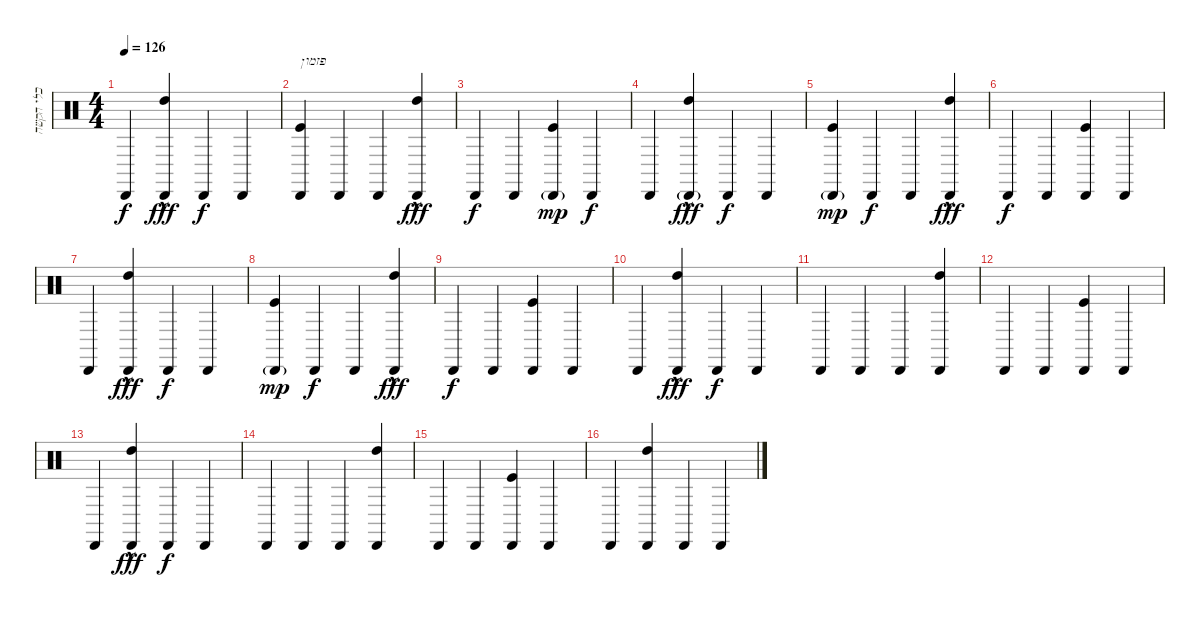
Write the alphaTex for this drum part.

\track ("כלי הקשה" "כלי הקשה") {instrument percussion}
\staff {score}
\articulation defaults
\ts (4 4)
\tempo 126
\clef neutral
\ks c "Cabasa (hit)".4{dy f}
("Cabasa (hit)" "High Tom (hit)"{hac}).4{dy fff} "Cabasa (hit)".4{dy f} "Cabasa (hit)".4 |
("Cabasa (hit)" "Kick (hit)").4{txt "פזמון"} "Cabasa (hit)".4 "Cabasa (hit)".4 ("High Tom (hit)"{hac} "Cabasa (hit)").4{dy fff} |
"Cabasa (hit)".4{dy f} "Cabasa (hit)".4 ("Cabasa (hit)"{g} "Kick (hit)").4{dy mp} "Cabasa (hit)".4{dy f} |
"Cabasa (hit)".4 ("Cabasa (hit)"{g} "High Tom (hit)"{hac}).4{dy fff} "Cabasa (hit)".4{dy f} "Cabasa (hit)".4 |
("Cabasa (hit)"{g} "Kick (hit)").4{dy mp} "Cabasa (hit)".4{dy f} "Cabasa (hit)".4 ("High Tom (hit)"{hac} "Cabasa (hit)").4{dy fff} |
"Cabasa (hit)".4{dy f} "Cabasa (hit)".4 ("Cabasa (hit)" "Kick (hit)").4 "Cabasa (hit)".4 |
"Cabasa (hit)".4 ("Cabasa (hit)" "High Tom (hit)"{hac}).4{dy fff} "Cabasa (hit)".4{dy f} "Cabasa (hit)".4 |
("Cabasa (hit)"{g} "Kick (hit)").4{dy mp} "Cabasa (hit)".4{dy f} "Cabasa (hit)".4 ("High Tom (hit)"{hac} "Cabasa (hit)").4{dy fff} |
"Cabasa (hit)".4{dy f} "Cabasa (hit)".4 ("Cabasa (hit)" "Kick (hit)").4 "Cabasa (hit)".4 |
"Cabasa (hit)".4 ("Cabasa (hit)" "High Tom (hit)"{hac}).4{dy fff} "Cabasa (hit)".4{dy f} "Cabasa (hit)".4 |
"Cabasa (hit)".4 "Cabasa (hit)".4 "Cabasa (hit)".4 ("Cabasa (hit)" "High Tom (hit)").4 |
"Cabasa (hit)".4 "Cabasa (hit)".4 ("Cabasa (hit)" "Kick (hit)").4 "Cabasa (hit)".4 |
"Cabasa (hit)".4 ("Cabasa (hit)" "High Tom (hit)"{hac}).4{dy fff} "Cabasa (hit)".4{dy f} "Cabasa (hit)".4 |
"Cabasa (hit)".4 "Cabasa (hit)".4 "Cabasa (hit)".4 ("Cabasa (hit)" "High Tom (hit)").4 |
"Cabasa (hit)".4 "Cabasa (hit)".4 ("Cabasa (hit)" "Kick (hit)").4 "Cabasa (hit)".4 |
"Cabasa (hit)".4 ("Cabasa (hit)" "High Tom (hit)").4 "Cabasa (hit)".4 "Cabasa (hit)".4
